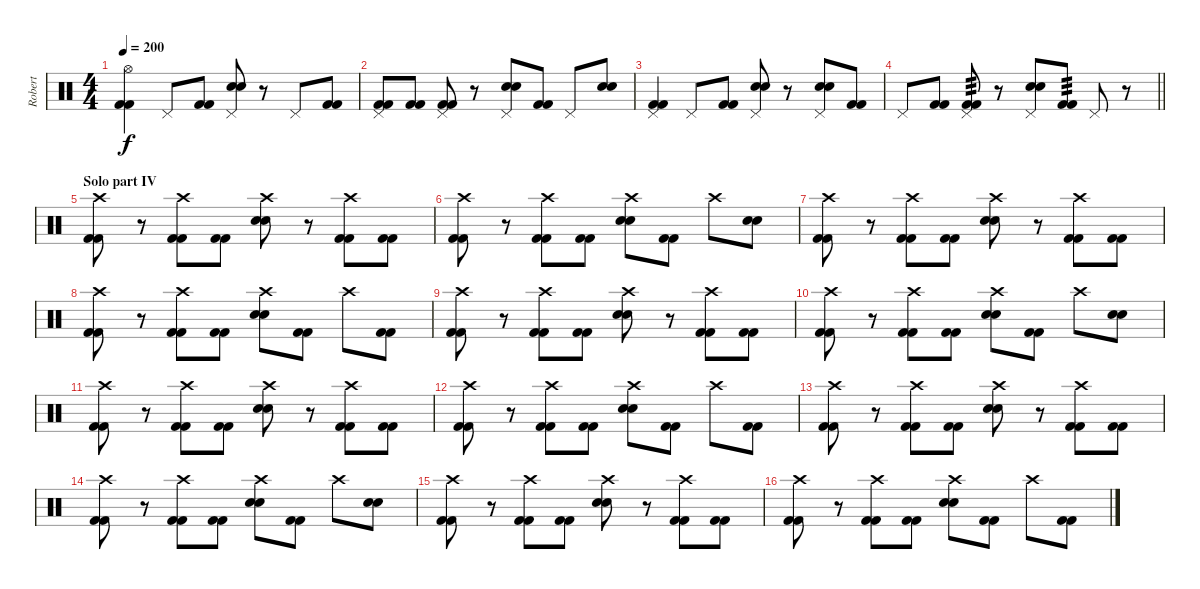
\track ("Robert" "Robert") {instrument percussion}
\staff {score}
\articulation defaults
\ts (4 4)
\tempo 200
\clef neutral
\ks c
("Hi-Hat (open)" "Kick (hit) 2" "Kick (hit) 2").4{dy f} "Pedal Hi-Hat (hit)".8 ("Kick (hit) 2" "Kick (hit) 2").8 ("Pedal Hi-Hat (hit)" "Electric Snare (hit)" "Electric Snare (hit)").8 r.8 "Pedal Hi-Hat (hit)".8 ("Kick (hit) 2" "Kick (hit) 2").8 |
("Pedal Hi-Hat (hit)" "Kick (hit) 2" "Kick (hit) 2").8 ("Kick (hit) 2" "Kick (hit) 2").8 ("Pedal Hi-Hat (hit)" "Kick (hit) 2" "Kick (hit) 2").8 r.8 ("Pedal Hi-Hat (hit)" "Electric Snare (hit)" "Electric Snare (hit)").8 ("Kick (hit) 2" "Kick (hit) 2").8 "Pedal Hi-Hat (hit)".8 ("Electric Snare (hit)" "Electric Snare (hit)").8 |
("Pedal Hi-Hat (hit)" "Kick (hit) 2" "Kick (hit) 2").4 "Pedal Hi-Hat (hit)".8 ("Kick (hit) 2" "Kick (hit) 2").8 ("Pedal Hi-Hat (hit)" "Electric Snare (hit)" "Electric Snare (hit)").8 r.8 ("Pedal Hi-Hat (hit)" "Electric Snare (hit)" "Electric Snare (hit)").8 ("Kick (hit) 2" "Kick (hit) 2").8 |
\barLineRight lightlight "Pedal Hi-Hat (hit)".8
("Kick (hit) 2" "Kick (hit) 2").8 ("Pedal Hi-Hat (hit)" "Kick (hit) 2" "Kick (hit) 2").8{tp 3} r.8 ("Pedal Hi-Hat (hit)" "Electric Snare (hit)" "Electric Snare (hit)").8 ("Kick (hit) 2" "Kick (hit) 2").8{tp 3} "Pedal Hi-Hat (hit)".8 r.8 |
\section ("" "Solo part IV")
("Crash high (hit)" "Kick (hit) 2" "Kick (hit) 2").8 r.8 ("Crash high (hit)" "Kick (hit) 2" "Kick (hit) 2").8 ("Kick (hit) 2" "Kick (hit) 2").8 ("Crash high (hit)" "Electric Snare (hit)" "Electric Snare (hit)").8 r.8 ("Crash high (hit)" "Kick (hit) 2" "Kick (hit) 2").8 ("Kick (hit) 2" "Kick (hit) 2").8 |
("Crash high (hit)" "Kick (hit) 2" "Kick (hit) 2").8 r.8 ("Crash high (hit)" "Kick (hit) 2" "Kick (hit) 2").8 ("Kick (hit) 2" "Kick (hit) 2").8 ("Crash high (hit)" "Electric Snare (hit)" "Electric Snare (hit)").8 ("Kick (hit) 2" "Kick (hit) 2").8 "Crash high (hit)".8 ("Electric Snare (hit)" "Electric Snare (hit)").8 |
("Crash high (hit)" "Kick (hit) 2" "Kick (hit) 2").8 r.8 ("Crash high (hit)" "Kick (hit) 2" "Kick (hit) 2").8 ("Kick (hit) 2" "Kick (hit) 2").8 ("Crash high (hit)" "Electric Snare (hit)" "Electric Snare (hit)").8 r.8 ("Crash high (hit)" "Kick (hit) 2" "Kick (hit) 2").8 ("Kick (hit) 2" "Kick (hit) 2").8 |
("Crash high (hit)" "Kick (hit) 2" "Kick (hit) 2").8 r.8 ("Crash high (hit)" "Kick (hit) 2" "Kick (hit) 2").8 ("Kick (hit) 2" "Kick (hit) 2").8 ("Crash high (hit)" "Electric Snare (hit)" "Electric Snare (hit)").8 ("Kick (hit) 2" "Kick (hit) 2").8 "Crash high (hit)".8 ("Kick (hit) 2" "Kick (hit) 2").8 |
("Crash high (hit)" "Kick (hit) 2" "Kick (hit) 2").8 r.8 ("Crash high (hit)" "Kick (hit) 2" "Kick (hit) 2").8 ("Kick (hit) 2" "Kick (hit) 2").8 ("Crash high (hit)" "Electric Snare (hit)" "Electric Snare (hit)").8 r.8 ("Crash high (hit)" "Kick (hit) 2" "Kick (hit) 2").8 ("Kick (hit) 2" "Kick (hit) 2").8 |
("Crash high (hit)" "Kick (hit) 2" "Kick (hit) 2").8 r.8 ("Crash high (hit)" "Kick (hit) 2" "Kick (hit) 2").8 ("Kick (hit) 2" "Kick (hit) 2").8 ("Crash high (hit)" "Electric Snare (hit)" "Electric Snare (hit)").8 ("Kick (hit) 2" "Kick (hit) 2").8 "Crash high (hit)".8 ("Electric Snare (hit)" "Electric Snare (hit)").8 |
("Crash high (hit)" "Kick (hit) 2" "Kick (hit) 2").8 r.8 ("Crash high (hit)" "Kick (hit) 2" "Kick (hit) 2").8 ("Kick (hit) 2" "Kick (hit) 2").8 ("Crash high (hit)" "Electric Snare (hit)" "Electric Snare (hit)").8 r.8 ("Crash high (hit)" "Kick (hit) 2" "Kick (hit) 2").8 ("Kick (hit) 2" "Kick (hit) 2").8 |
("Crash high (hit)" "Kick (hit) 2" "Kick (hit) 2").8 r.8 ("Crash high (hit)" "Kick (hit) 2" "Kick (hit) 2").8 ("Kick (hit) 2" "Kick (hit) 2").8 ("Crash high (hit)" "Electric Snare (hit)" "Electric Snare (hit)").8 ("Kick (hit) 2" "Kick (hit) 2").8 "Crash high (hit)".8 ("Kick (hit) 2" "Kick (hit) 2").8 |
("Crash high (hit)" "Kick (hit) 2" "Kick (hit) 2").8 r.8 ("Crash high (hit)" "Kick (hit) 2" "Kick (hit) 2").8 ("Kick (hit) 2" "Kick (hit) 2").8 ("Crash high (hit)" "Electric Snare (hit)" "Electric Snare (hit)").8 r.8 ("Crash high (hit)" "Kick (hit) 2" "Kick (hit) 2").8 ("Kick (hit) 2" "Kick (hit) 2").8 |
("Crash high (hit)" "Kick (hit) 2" "Kick (hit) 2").8 r.8 ("Crash high (hit)" "Kick (hit) 2" "Kick (hit) 2").8 ("Kick (hit) 2" "Kick (hit) 2").8 ("Crash high (hit)" "Electric Snare (hit)" "Electric Snare (hit)").8 ("Kick (hit) 2" "Kick (hit) 2").8 "Crash high (hit)".8 ("Electric Snare (hit)" "Electric Snare (hit)").8 |
("Crash high (hit)" "Kick (hit) 2" "Kick (hit) 2").8 r.8 ("Crash high (hit)" "Kick (hit) 2" "Kick (hit) 2").8 ("Kick (hit) 2" "Kick (hit) 2").8 ("Crash high (hit)" "Electric Snare (hit)" "Electric Snare (hit)").8 r.8 ("Crash high (hit)" "Kick (hit) 2" "Kick (hit) 2").8 ("Kick (hit) 2" "Kick (hit) 2").8 |
("Crash high (hit)" "Kick (hit) 2" "Kick (hit) 2").8 r.8 ("Crash high (hit)" "Kick (hit) 2" "Kick (hit) 2").8 ("Kick (hit) 2" "Kick (hit) 2").8 ("Crash high (hit)" "Electric Snare (hit)" "Electric Snare (hit)").8 ("Kick (hit) 2" "Kick (hit) 2").8 "Crash high (hit)".8 ("Kick (hit) 2" "Kick (hit) 2").8
